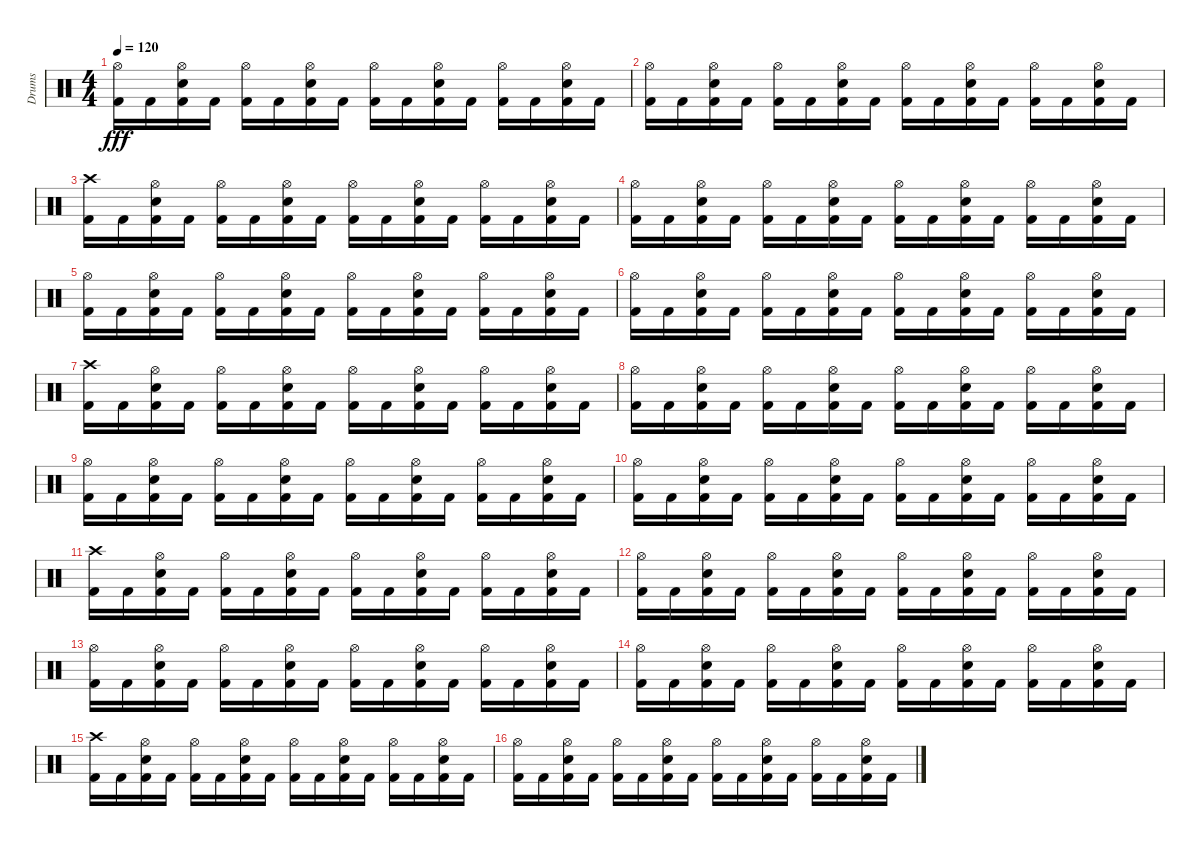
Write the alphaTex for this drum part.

\track ("Drums" "Drums") {instrument percussion}
\staff {score}
\articulation defaults
\ts (4 4)
\tempo 120
\clef neutral
\ks c
("Hi-Hat (open)" "Kick (hit) 2").16{dy fff} "Kick (hit) 2".16 ("Hi-Hat (open)" "Electric Snare (hit)" "Kick (hit) 2").16 "Kick (hit) 2".16 ("Hi-Hat (open)" "Kick (hit) 2").16 "Kick (hit) 2".16 ("Hi-Hat (open)" "Electric Snare (hit)" "Kick (hit) 2").16 "Kick (hit) 2".16 ("Hi-Hat (open)" "Kick (hit) 2").16 "Kick (hit) 2".16 ("Hi-Hat (open)" "Electric Snare (hit)" "Kick (hit) 2").16 "Kick (hit) 2".16 ("Hi-Hat (open)" "Kick (hit) 2").16 "Kick (hit) 2".16 ("Hi-Hat (open)" "Electric Snare (hit)" "Kick (hit) 2").16 "Kick (hit) 2".16 |
("Hi-Hat (open)" "Kick (hit) 2").16 "Kick (hit) 2".16 ("Hi-Hat (open)" "Electric Snare (hit)" "Kick (hit) 2").16 "Kick (hit) 2".16 ("Hi-Hat (open)" "Kick (hit) 2").16 "Kick (hit) 2".16 ("Hi-Hat (open)" "Electric Snare (hit)" "Kick (hit) 2").16 "Kick (hit) 2".16 ("Hi-Hat (open)" "Kick (hit) 2").16 "Kick (hit) 2".16 ("Hi-Hat (open)" "Electric Snare (hit)" "Kick (hit) 2").16 "Kick (hit) 2".16 ("Hi-Hat (open)" "Kick (hit) 2").16 "Kick (hit) 2".16 ("Hi-Hat (open)" "Electric Snare (hit)" "Kick (hit) 2").16 "Kick (hit) 2".16 |
("Crash high (hit)" "Kick (hit) 2").16 "Kick (hit) 2".16 ("Hi-Hat (open)" "Electric Snare (hit)" "Kick (hit) 2").16 "Kick (hit) 2".16 ("Hi-Hat (open)" "Kick (hit) 2").16 "Kick (hit) 2".16 ("Hi-Hat (open)" "Electric Snare (hit)" "Kick (hit) 2").16 "Kick (hit) 2".16 ("Hi-Hat (open)" "Kick (hit) 2").16 "Kick (hit) 2".16 ("Hi-Hat (open)" "Electric Snare (hit)" "Kick (hit) 2").16 "Kick (hit) 2".16 ("Hi-Hat (open)" "Kick (hit) 2").16 "Kick (hit) 2".16 ("Hi-Hat (open)" "Electric Snare (hit)" "Kick (hit) 2").16 "Kick (hit) 2".16 |
("Hi-Hat (open)" "Kick (hit) 2").16 "Kick (hit) 2".16 ("Hi-Hat (open)" "Electric Snare (hit)" "Kick (hit) 2").16 "Kick (hit) 2".16 ("Hi-Hat (open)" "Kick (hit) 2").16 "Kick (hit) 2".16 ("Hi-Hat (open)" "Electric Snare (hit)" "Kick (hit) 2").16 "Kick (hit) 2".16 ("Hi-Hat (open)" "Kick (hit) 2").16 "Kick (hit) 2".16 ("Hi-Hat (open)" "Electric Snare (hit)" "Kick (hit) 2").16 "Kick (hit) 2".16 ("Hi-Hat (open)" "Kick (hit) 2").16 "Kick (hit) 2".16 ("Hi-Hat (open)" "Electric Snare (hit)" "Kick (hit) 2").16 "Kick (hit) 2".16 |
("Hi-Hat (open)" "Kick (hit) 2").16 "Kick (hit) 2".16 ("Hi-Hat (open)" "Electric Snare (hit)" "Kick (hit) 2").16 "Kick (hit) 2".16 ("Hi-Hat (open)" "Kick (hit) 2").16 "Kick (hit) 2".16 ("Hi-Hat (open)" "Electric Snare (hit)" "Kick (hit) 2").16 "Kick (hit) 2".16 ("Hi-Hat (open)" "Kick (hit) 2").16 "Kick (hit) 2".16 ("Hi-Hat (open)" "Electric Snare (hit)" "Kick (hit) 2").16 "Kick (hit) 2".16 ("Hi-Hat (open)" "Kick (hit) 2").16 "Kick (hit) 2".16 ("Hi-Hat (open)" "Electric Snare (hit)" "Kick (hit) 2").16 "Kick (hit) 2".16 |
("Hi-Hat (open)" "Kick (hit) 2").16 "Kick (hit) 2".16 ("Hi-Hat (open)" "Electric Snare (hit)" "Kick (hit) 2").16 "Kick (hit) 2".16 ("Hi-Hat (open)" "Kick (hit) 2").16 "Kick (hit) 2".16 ("Hi-Hat (open)" "Electric Snare (hit)" "Kick (hit) 2").16 "Kick (hit) 2".16 ("Hi-Hat (open)" "Kick (hit) 2").16 "Kick (hit) 2".16 ("Hi-Hat (open)" "Electric Snare (hit)" "Kick (hit) 2").16 "Kick (hit) 2".16 ("Hi-Hat (open)" "Kick (hit) 2").16 "Kick (hit) 2".16 ("Hi-Hat (open)" "Electric Snare (hit)" "Kick (hit) 2").16 "Kick (hit) 2".16 |
("Crash high (hit)" "Kick (hit) 2").16 "Kick (hit) 2".16 ("Hi-Hat (open)" "Electric Snare (hit)" "Kick (hit) 2").16 "Kick (hit) 2".16 ("Hi-Hat (open)" "Kick (hit) 2").16 "Kick (hit) 2".16 ("Hi-Hat (open)" "Electric Snare (hit)" "Kick (hit) 2").16 "Kick (hit) 2".16 ("Hi-Hat (open)" "Kick (hit) 2").16 "Kick (hit) 2".16 ("Hi-Hat (open)" "Electric Snare (hit)" "Kick (hit) 2").16 "Kick (hit) 2".16 ("Hi-Hat (open)" "Kick (hit) 2").16 "Kick (hit) 2".16 ("Hi-Hat (open)" "Electric Snare (hit)" "Kick (hit) 2").16 "Kick (hit) 2".16 |
("Hi-Hat (open)" "Kick (hit) 2").16 "Kick (hit) 2".16 ("Hi-Hat (open)" "Electric Snare (hit)" "Kick (hit) 2").16 "Kick (hit) 2".16 ("Hi-Hat (open)" "Kick (hit) 2").16 "Kick (hit) 2".16 ("Hi-Hat (open)" "Electric Snare (hit)" "Kick (hit) 2").16 "Kick (hit) 2".16 ("Hi-Hat (open)" "Kick (hit) 2").16 "Kick (hit) 2".16 ("Hi-Hat (open)" "Electric Snare (hit)" "Kick (hit) 2").16 "Kick (hit) 2".16 ("Hi-Hat (open)" "Kick (hit) 2").16 "Kick (hit) 2".16 ("Hi-Hat (open)" "Electric Snare (hit)" "Kick (hit) 2").16 "Kick (hit) 2".16 |
("Hi-Hat (open)" "Kick (hit) 2").16 "Kick (hit) 2".16 ("Hi-Hat (open)" "Electric Snare (hit)" "Kick (hit) 2").16 "Kick (hit) 2".16 ("Hi-Hat (open)" "Kick (hit) 2").16 "Kick (hit) 2".16 ("Hi-Hat (open)" "Electric Snare (hit)" "Kick (hit) 2").16 "Kick (hit) 2".16 ("Hi-Hat (open)" "Kick (hit) 2").16 "Kick (hit) 2".16 ("Hi-Hat (open)" "Electric Snare (hit)" "Kick (hit) 2").16 "Kick (hit) 2".16 ("Hi-Hat (open)" "Kick (hit) 2").16 "Kick (hit) 2".16 ("Hi-Hat (open)" "Electric Snare (hit)" "Kick (hit) 2").16 "Kick (hit) 2".16 |
("Hi-Hat (open)" "Kick (hit) 2").16 "Kick (hit) 2".16 ("Hi-Hat (open)" "Electric Snare (hit)" "Kick (hit) 2").16 "Kick (hit) 2".16 ("Hi-Hat (open)" "Kick (hit) 2").16 "Kick (hit) 2".16 ("Hi-Hat (open)" "Electric Snare (hit)" "Kick (hit) 2").16 "Kick (hit) 2".16 ("Hi-Hat (open)" "Kick (hit) 2").16 "Kick (hit) 2".16 ("Hi-Hat (open)" "Electric Snare (hit)" "Kick (hit) 2").16 "Kick (hit) 2".16 ("Hi-Hat (open)" "Kick (hit) 2").16 "Kick (hit) 2".16 ("Hi-Hat (open)" "Electric Snare (hit)" "Kick (hit) 2").16 "Kick (hit) 2".16 |
("Crash high (hit)" "Kick (hit) 2").16 "Kick (hit) 2".16 ("Hi-Hat (open)" "Electric Snare (hit)" "Kick (hit) 2").16 "Kick (hit) 2".16 ("Hi-Hat (open)" "Kick (hit) 2").16 "Kick (hit) 2".16 ("Hi-Hat (open)" "Electric Snare (hit)" "Kick (hit) 2").16 "Kick (hit) 2".16 ("Hi-Hat (open)" "Kick (hit) 2").16 "Kick (hit) 2".16 ("Hi-Hat (open)" "Electric Snare (hit)" "Kick (hit) 2").16 "Kick (hit) 2".16 ("Hi-Hat (open)" "Kick (hit) 2").16 "Kick (hit) 2".16 ("Hi-Hat (open)" "Electric Snare (hit)" "Kick (hit) 2").16 "Kick (hit) 2".16 |
("Hi-Hat (open)" "Kick (hit) 2").16 "Kick (hit) 2".16 ("Hi-Hat (open)" "Electric Snare (hit)" "Kick (hit) 2").16 "Kick (hit) 2".16 ("Hi-Hat (open)" "Kick (hit) 2").16 "Kick (hit) 2".16 ("Hi-Hat (open)" "Electric Snare (hit)" "Kick (hit) 2").16 "Kick (hit) 2".16 ("Hi-Hat (open)" "Kick (hit) 2").16 "Kick (hit) 2".16 ("Hi-Hat (open)" "Electric Snare (hit)" "Kick (hit) 2").16 "Kick (hit) 2".16 ("Hi-Hat (open)" "Kick (hit) 2").16 "Kick (hit) 2".16 ("Hi-Hat (open)" "Electric Snare (hit)" "Kick (hit) 2").16 "Kick (hit) 2".16 |
("Hi-Hat (open)" "Kick (hit) 2").16 "Kick (hit) 2".16 ("Hi-Hat (open)" "Electric Snare (hit)" "Kick (hit) 2").16 "Kick (hit) 2".16 ("Hi-Hat (open)" "Kick (hit) 2").16 "Kick (hit) 2".16 ("Hi-Hat (open)" "Electric Snare (hit)" "Kick (hit) 2").16 "Kick (hit) 2".16 ("Hi-Hat (open)" "Kick (hit) 2").16 "Kick (hit) 2".16 ("Hi-Hat (open)" "Electric Snare (hit)" "Kick (hit) 2").16 "Kick (hit) 2".16 ("Hi-Hat (open)" "Kick (hit) 2").16 "Kick (hit) 2".16 ("Hi-Hat (open)" "Electric Snare (hit)" "Kick (hit) 2").16 "Kick (hit) 2".16 |
("Hi-Hat (open)" "Kick (hit) 2").16 "Kick (hit) 2".16 ("Hi-Hat (open)" "Electric Snare (hit)" "Kick (hit) 2").16 "Kick (hit) 2".16 ("Hi-Hat (open)" "Kick (hit) 2").16 "Kick (hit) 2".16 ("Hi-Hat (open)" "Electric Snare (hit)" "Kick (hit) 2").16 "Kick (hit) 2".16 ("Hi-Hat (open)" "Kick (hit) 2").16 "Kick (hit) 2".16 ("Hi-Hat (open)" "Electric Snare (hit)" "Kick (hit) 2").16 "Kick (hit) 2".16 ("Hi-Hat (open)" "Kick (hit) 2").16 "Kick (hit) 2".16 ("Hi-Hat (open)" "Electric Snare (hit)" "Kick (hit) 2").16 "Kick (hit) 2".16 |
("Crash high (hit)" "Kick (hit) 2").16 "Kick (hit) 2".16 ("Hi-Hat (open)" "Electric Snare (hit)" "Kick (hit) 2").16 "Kick (hit) 2".16 ("Hi-Hat (open)" "Kick (hit) 2").16 "Kick (hit) 2".16 ("Hi-Hat (open)" "Electric Snare (hit)" "Kick (hit) 2").16 "Kick (hit) 2".16 ("Hi-Hat (open)" "Kick (hit) 2").16 "Kick (hit) 2".16 ("Hi-Hat (open)" "Electric Snare (hit)" "Kick (hit) 2").16 "Kick (hit) 2".16 ("Hi-Hat (open)" "Kick (hit) 2").16 "Kick (hit) 2".16 ("Hi-Hat (open)" "Electric Snare (hit)" "Kick (hit) 2").16 "Kick (hit) 2".16 |
("Hi-Hat (open)" "Kick (hit) 2").16 "Kick (hit) 2".16 ("Hi-Hat (open)" "Electric Snare (hit)" "Kick (hit) 2").16 "Kick (hit) 2".16 ("Hi-Hat (open)" "Kick (hit) 2").16 "Kick (hit) 2".16 ("Hi-Hat (open)" "Electric Snare (hit)" "Kick (hit) 2").16 "Kick (hit) 2".16 ("Hi-Hat (open)" "Kick (hit) 2").16 "Kick (hit) 2".16 ("Hi-Hat (open)" "Electric Snare (hit)" "Kick (hit) 2").16 "Kick (hit) 2".16 ("Hi-Hat (open)" "Kick (hit) 2").16 "Kick (hit) 2".16 ("Hi-Hat (open)" "Electric Snare (hit)" "Kick (hit) 2").16 "Kick (hit) 2".16
